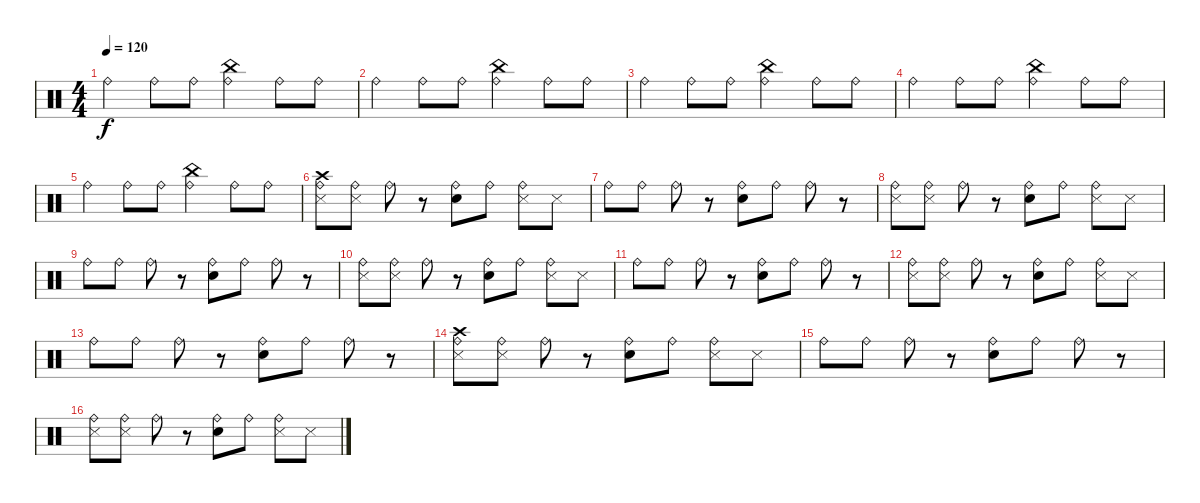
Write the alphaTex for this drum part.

\track "" {instrument percussion}
\staff {score}
\articulation defaults
\ts (4 4)
\tempo 120
\clef neutral
\ks c "Ride (bell)".4{dy f} "Ride (bell)".8 "Ride (bell)".8
("Ride (bell)" "China (hit)").4 "Ride (bell)".8 "Ride (bell)".8 |
"Ride (bell)".4 "Ride (bell)".8 "Ride (bell)".8 ("Ride (bell)" "China (hit)").4 "Ride (bell)".8 "Ride (bell)".8 |
"Ride (bell)".4 "Ride (bell)".8 "Ride (bell)".8 ("Ride (bell)" "China (hit)").4 "Ride (bell)".8 "Ride (bell)".8 |
"Ride (bell)".4 "Ride (bell)".8 "Ride (bell)".8 ("Ride (bell)" "China (hit)").4 "Ride (bell)".8 "Ride (bell)".8 |
"Ride (bell)".4 "Ride (bell)".8 "Ride (bell)".8 ("Ride (bell)" "China (hit)").4 "Ride (bell)".8 "Ride (bell)".8 |
("Metronome (hit)" "Crash high (hit)" "Ride (bell)").8 ("Metronome (hit)" "Ride (bell)").8 "Ride (bell)".8 r.8 ("Electric Snare (hit)" "Ride (bell)").8 "Ride (bell)".8 ("Metronome (hit)" "Ride (bell)").8 "Metronome (hit)".8 |
"Ride (bell)".8 "Ride (bell)".8 "Ride (bell)".8 r.8 ("Electric Snare (hit)" "Ride (bell)").8 "Ride (bell)".8 "Ride (bell)".8 r.8 |
("Metronome (hit)" "Ride (bell)").8 ("Metronome (hit)" "Ride (bell)").8 "Ride (bell)".8 r.8 ("Electric Snare (hit)" "Ride (bell)").8 "Ride (bell)".8 ("Metronome (hit)" "Ride (bell)").8 "Metronome (hit)".8 |
"Ride (bell)".8 "Ride (bell)".8 "Ride (bell)".8 r.8 ("Electric Snare (hit)" "Ride (bell)").8 "Ride (bell)".8 "Ride (bell)".8 r.8 |
("Metronome (hit)" "Ride (bell)").8 ("Metronome (hit)" "Ride (bell)").8 "Ride (bell)".8 r.8 ("Electric Snare (hit)" "Ride (bell)").8 "Ride (bell)".8 ("Metronome (hit)" "Ride (bell)").8 "Metronome (hit)".8 |
"Ride (bell)".8 "Ride (bell)".8 "Ride (bell)".8 r.8 ("Electric Snare (hit)" "Ride (bell)").8 "Ride (bell)".8 "Ride (bell)".8 r.8 |
("Metronome (hit)" "Ride (bell)").8 ("Metronome (hit)" "Ride (bell)").8 "Ride (bell)".8 r.8 ("Electric Snare (hit)" "Ride (bell)").8 "Ride (bell)".8 ("Metronome (hit)" "Ride (bell)").8 "Metronome (hit)".8 |
"Ride (bell)".8 "Ride (bell)".8 "Ride (bell)".8 r.8 ("Electric Snare (hit)" "Ride (bell)").8 "Ride (bell)".8 "Ride (bell)".8 r.8 |
("Metronome (hit)" "Ride (bell)" "Crash high (hit)").8 ("Metronome (hit)" "Ride (bell)").8 "Ride (bell)".8 r.8 ("Electric Snare (hit)" "Ride (bell)").8 "Ride (bell)".8 ("Metronome (hit)" "Ride (bell)").8 "Metronome (hit)".8 |
"Ride (bell)".8 "Ride (bell)".8 "Ride (bell)".8 r.8 ("Electric Snare (hit)" "Ride (bell)").8 "Ride (bell)".8 "Ride (bell)".8 r.8 |
("Metronome (hit)" "Ride (bell)").8 ("Metronome (hit)" "Ride (bell)").8 "Ride (bell)".8 r.8 ("Electric Snare (hit)" "Ride (bell)").8 "Ride (bell)".8 ("Metronome (hit)" "Ride (bell)").8 "Metronome (hit)".8
